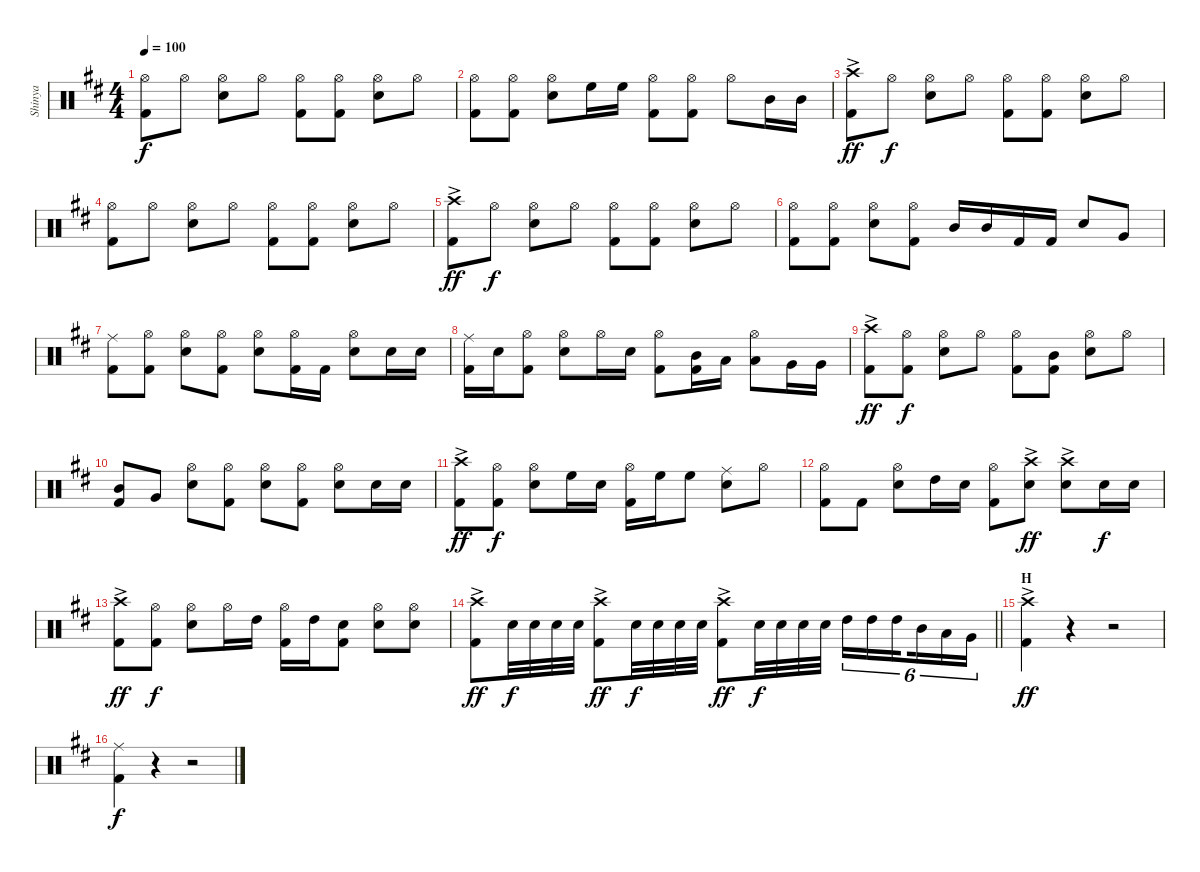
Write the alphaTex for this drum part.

\track ("Shinya" "Shinya") {instrument percussion}
\staff {score}
\articulation defaults
\ts (4 4)
\tempo 100
\clef neutral
\ks d
("Hi-Hat (open)" "Kick (hit) 2").8{dy f} "Hi-Hat (open)".8 ("Hi-Hat (open)" "Snare (hit) 2").8 "Hi-Hat (open)".8 ("Hi-Hat (open)" "Kick (hit) 2").8 ("Hi-Hat (open)" "Kick (hit) 2").8 ("Hi-Hat (open)" "Snare (hit) 2").8 "Hi-Hat (open)".8 |
("Hi-Hat (open)" "Kick (hit) 2").8 ("Hi-Hat (open)" "Kick (hit) 2").8 ("Hi-Hat (open)" "Snare (hit) 2").8 "High Floor Tom (hit)".16 "High Floor Tom (hit)".16 ("Hi-Hat (open)" "Kick (hit) 2").8 ("Hi-Hat (open)" "Kick (hit) 2").8 "Hi-Hat (open)".8 "Mid Tom (hit)".16 "Mid Tom (hit)".16 |
("Crash high (hit)"{ac} "Kick (hit) 2").8{dy ff} "Hi-Hat (open)".8{dy f} ("Hi-Hat (open)" "Snare (hit) 2").8 "Hi-Hat (open)".8 ("Hi-Hat (open)" "Kick (hit) 2").8 ("Hi-Hat (open)" "Kick (hit) 2").8 ("Hi-Hat (open)" "Snare (hit) 2").8 "Hi-Hat (open)".8 |
("Hi-Hat (open)" "Kick (hit) 2").8 "Hi-Hat (open)".8 ("Hi-Hat (open)" "Snare (hit) 2").8 "Hi-Hat (open)".8 ("Hi-Hat (open)" "Kick (hit) 2").8 ("Hi-Hat (open)" "Kick (hit) 2").8 ("Hi-Hat (open)" "Snare (hit) 2").8 "Hi-Hat (open)".8 |
("Crash high (hit)"{ac} "Kick (hit) 2").8{dy ff} "Hi-Hat (open)".8{dy f} ("Hi-Hat (open)" "Snare (hit) 2").8 "Hi-Hat (open)".8 ("Hi-Hat (open)" "Kick (hit) 2").8 ("Hi-Hat (open)" "Kick (hit) 2").8 ("Hi-Hat (open)" "Snare (hit) 2").8 "Hi-Hat (open)".8 |
("Hi-Hat (open)" "Kick (hit) 2").8 ("Hi-Hat (open)" "Kick (hit) 2").8 ("Hi-Hat (open)" "Snare (hit) 2").8 ("Hi-Hat (open)" "Kick (hit) 2").8 "Mid Tom (hit)".16 "Mid Tom (hit)".16 "Kick (hit) 2".16 "Kick (hit) 2".16 "Snare (hit) 2".8 "Very Low Tom (hit)".8 |
("Ride (middle)" "Kick (hit) 2").8 ("Hi-Hat (open)" "Kick (hit) 2").8 ("Hi-Hat (open)" "Snare (hit) 2").8 ("Hi-Hat (open)" "Kick (hit) 2").8 ("Hi-Hat (open)" "Snare (hit) 2").8 ("Hi-Hat (open)" "Kick (hit) 2").16 "Kick (hit) 2".16 ("Hi-Hat (open)" "Snare (hit) 2").8 "Snare (hit) 2".16 "Snare (hit) 2".16 |
("Ride (middle)" "Kick (hit) 2").16 "Snare (hit) 2".16 ("Hi-Hat (open)" "Kick (hit) 2").8 ("Hi-Hat (open)" "Snare (hit) 2").8 "Hi-Hat (open)".16 "Snare (hit) 2".16 ("Hi-Hat (open)" "Kick (hit) 2").8 ("Mid Tom (hit)" "Kick (hit) 2").16 "Low Tom (hit)".16 ("Hi-Hat (open)" "Low Tom (hit)").8 "Very Low Tom (hit)".16 "Very Low Tom (hit)".16 |
("Crash high (hit)"{ac} "Kick (hit) 2").8{dy ff} ("Hi-Hat (open)" "Kick (hit) 2").8{dy f} ("Hi-Hat (open)" "Snare (hit) 2").8 "Hi-Hat (open)".8 ("Hi-Hat (open)" "Kick (hit) 2").8 ("Mid Tom (hit)" "Kick (hit) 2").8 ("Hi-Hat (open)" "Snare (hit) 2").8 "Hi-Hat (open)".8 |
("Mid Tom (hit)" "Kick (hit) 2").8 "Very Low Tom (hit)".8 ("Hi-Hat (open)" "Snare (hit) 2").8 ("Hi-Hat (open)" "Kick (hit) 2").8 ("Hi-Hat (open)" "Snare (hit) 2").8 ("Hi-Hat (open)" "Kick (hit) 2").8 ("Hi-Hat (open)" "Snare (hit) 2").8 "Snare (hit) 2".16 "Snare (hit) 2".16 |
("Crash high (hit)"{ac} "Kick (hit) 2").8{dy ff} ("Hi-Hat (open)" "Kick (hit) 2").8{dy f} ("Hi-Hat (open)" "Snare (hit) 2").8 "High Floor Tom (hit)".16 "Snare (hit) 2".16 ("Hi-Hat (open)" "Kick (hit) 2").16 "High Floor Tom (hit)".16 "High Floor Tom (hit)".8 ("Ride (middle)" "Snare (hit) 2").8 "Hi-Hat (open)".8 |
("Hi-Hat (open)" "Kick (hit) 2").8 "Kick (hit) 2".8 ("Hi-Hat (open)" "Snare (hit) 2").8 "High Tom (hit)".16 "Snare (hit) 2".16 ("Hi-Hat (open)" "Kick (hit) 2").8 ("Crash high (hit)" "Snare (hit) 2"{ac}).8{dy ff} ("Crash high (hit)"{ac} "Snare (hit) 2").8 "Snare (hit) 2".16{dy f} "Snare (hit) 2".16 |
("Crash high (hit)"{ac} "Kick (hit) 2").8{dy ff} ("Hi-Hat (open)" "Kick (hit) 2").8{dy f} ("Hi-Hat (open)" "Snare (hit) 2").8 "Hi-Hat (open)".16 "High Tom (hit)".16 ("Hi-Hat (open)" "Kick (hit) 2").16 "High Tom (hit)".16 ("Snare (hit) 2" "Kick (hit) 2").8 ("Hi-Hat (open)" "Snare (hit) 2").8 ("Hi-Hat (open)" "Snare (hit) 2").8 |
\barLineRight lightlight
("Crash high (hit)" "Kick (hit) 2"{ac}).8{dy ff} "Snare (hit) 2".32{dy f} "Snare (hit) 2".32 "Snare (hit) 2".32 "Snare (hit) 2".32 ("Crash high (hit)" "Kick (hit) 2"{ac}).8{dy ff} "Snare (hit) 2".32{dy f} "Snare (hit) 2".32 "Snare (hit) 2".32 "Snare (hit) 2".32 ("Crash high (hit)" "Kick (hit) 2"{ac}).8{dy ff} "Snare (hit) 2".32{dy f} "Snare (hit) 2".32 "Snare (hit) 2".32 "Snare (hit) 2".32 "High Tom (hit)".16{tu (6 4)} "High Tom (hit)".16{tu (6 4)} "High Tom (hit)".16{tu (6 4) beam splitsecondary} "Mid Tom (hit)".16{tu (6 4)} "Low Tom (hit)".16{tu (6 4)} "Very Low Tom (hit)".16{tu (6 4)} |
\section ("" "H")
("Crash high (hit)"{ac} "Kick (hit) 2").4{dy ff} r.4 r.2 |
("Ride (middle)" "Kick (hit) 2").4{dy f} r.4 r.2
